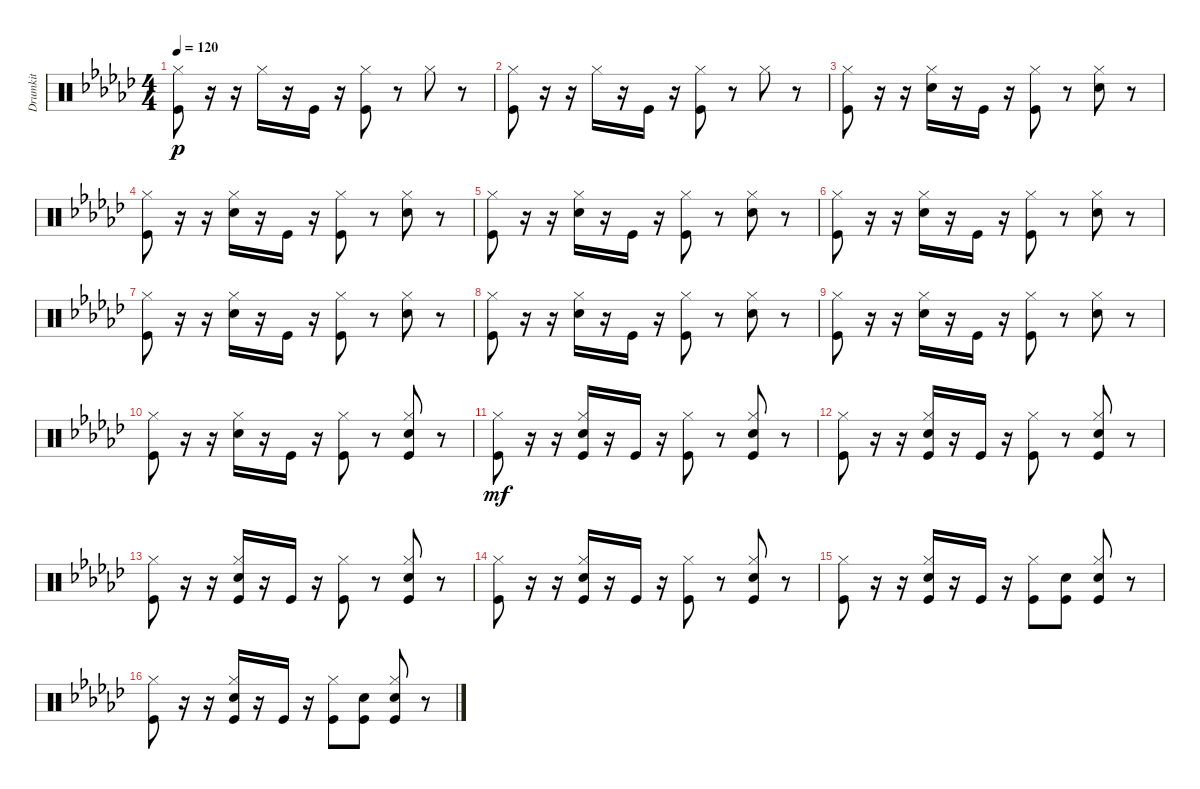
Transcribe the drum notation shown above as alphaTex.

\track ("Drumkit" "Drumkit") {instrument percussion}
\staff {score}
\articulation defaults
\ts (4 4)
\tempo 120
\clef neutral
\ks ebminor
("Kick (hit)" "Hi-Hat (closed)").8{dy p} r.16 r.16 "Hi-Hat (closed)".16 r.16 "Kick (hit)".16 r.16 ("Kick (hit)" "Hi-Hat (closed)").8 r.8 "Hi-Hat (closed)".8 r.8 |
("Kick (hit)" "Hi-Hat (closed)").8 r.16 r.16 "Hi-Hat (closed)".16 r.16 "Kick (hit)".16 r.16 ("Kick (hit)" "Hi-Hat (closed)").8 r.8 "Hi-Hat (closed)".8 r.8 |
("Kick (hit)" "Hi-Hat (closed)").8 r.16 r.16 ("Hi-Hat (closed)" "Snare (hit) 2").16 r.16 "Kick (hit)".16 r.16 ("Kick (hit)" "Hi-Hat (closed)").8 r.8 ("Hi-Hat (closed)" "Snare (hit) 2").8 r.8 |
("Kick (hit)" "Hi-Hat (closed)").8 r.16 r.16 ("Hi-Hat (closed)" "Snare (hit) 2").16 r.16 "Kick (hit)".16 r.16 ("Kick (hit)" "Hi-Hat (closed)").8 r.8 ("Hi-Hat (closed)" "Snare (hit) 2").8 r.8 |
("Kick (hit)" "Hi-Hat (closed)").8 r.16 r.16 ("Hi-Hat (closed)" "Snare (hit) 2").16 r.16 "Kick (hit)".16 r.16 ("Kick (hit)" "Hi-Hat (closed)").8 r.8 ("Hi-Hat (closed)" "Snare (hit) 2").8 r.8 |
("Kick (hit)" "Hi-Hat (closed)").8 r.16 r.16 ("Hi-Hat (closed)" "Snare (hit) 2").16 r.16 "Kick (hit)".16 r.16 ("Kick (hit)" "Hi-Hat (closed)").8 r.8 ("Snare (hit) 2" "Hi-Hat (closed)").8 r.8 |
("Kick (hit)" "Hi-Hat (closed)").8 r.16 r.16 ("Hi-Hat (closed)" "Snare (hit) 2").16 r.16 "Kick (hit)".16 r.16 ("Kick (hit)" "Hi-Hat (closed)").8 r.8 ("Hi-Hat (closed)" "Snare (hit) 2").8 r.8 |
("Kick (hit)" "Hi-Hat (closed)").8 r.16 r.16 ("Hi-Hat (closed)" "Snare (hit) 2").16 r.16 "Kick (hit)".16 r.16 ("Kick (hit)" "Hi-Hat (closed)").8 r.8 ("Hi-Hat (closed)" "Snare (hit) 2").8 r.8 |
("Kick (hit)" "Hi-Hat (closed)").8 r.16 r.16 ("Hi-Hat (closed)" "Snare (hit) 2").16 r.16 "Kick (hit)".16 r.16 ("Kick (hit)" "Hi-Hat (closed)").8 r.8 ("Hi-Hat (closed)" "Snare (hit) 2").8 r.8 |
("Kick (hit)" "Hi-Hat (closed)").8 r.16 r.16 ("Hi-Hat (closed)" "Snare (hit) 2").16 r.16 "Kick (hit)".16 r.16 ("Kick (hit)" "Hi-Hat (closed)").8 r.8 ("Snare (hit) 2" "Hi-Hat (closed)" "Kick (hit)").8 r.8 |
("Kick (hit)" "Hi-Hat (closed)").8{dy mf} r.16 r.16 ("Hi-Hat (closed)" "Snare (hit) 2" "Kick (hit)").16 r.16 "Kick (hit)".16 r.16 ("Kick (hit)" "Hi-Hat (closed)").8 r.8 ("Hi-Hat (closed)" "Snare (hit) 2" "Kick (hit)").8 r.8 |
("Kick (hit)" "Hi-Hat (closed)").8 r.16 r.16 ("Hi-Hat (closed)" "Snare (hit) 2" "Kick (hit)").16 r.16 "Kick (hit)".16 r.16 ("Kick (hit)" "Hi-Hat (closed)").8 r.8 ("Hi-Hat (closed)" "Snare (hit) 2" "Kick (hit)").8 r.8 |
("Kick (hit)" "Hi-Hat (closed)").8 r.16 r.16 ("Hi-Hat (closed)" "Snare (hit) 2" "Kick (hit)").16 r.16 "Kick (hit)".16 r.16 ("Kick (hit)" "Hi-Hat (closed)").8 r.8 ("Hi-Hat (closed)" "Snare (hit) 2" "Kick (hit)").8 r.8 |
("Kick (hit)" "Hi-Hat (closed)").8 r.16 r.16 ("Hi-Hat (closed)" "Snare (hit) 2" "Kick (hit)").16 r.16 "Kick (hit)".16 r.16 ("Kick (hit)" "Hi-Hat (closed)").8 r.8 ("Snare (hit) 2" "Hi-Hat (closed)" "Kick (hit)").8 r.8 |
("Kick (hit)" "Hi-Hat (closed)").8 r.16 r.16 ("Hi-Hat (closed)" "Snare (hit) 2" "Kick (hit)").16 r.16 "Kick (hit)".16 r.16 ("Kick (hit)" "Hi-Hat (closed)").8 ("Kick (hit)" "Snare (hit) 2").8 ("Hi-Hat (closed)" "Snare (hit) 2" "Kick (hit)").8 r.8 |
("Kick (hit)" "Hi-Hat (closed)").8 r.16 r.16 ("Hi-Hat (closed)" "Snare (hit) 2" "Kick (hit)").16 r.16 "Kick (hit)".16 r.16 ("Kick (hit)" "Hi-Hat (closed)").8 ("Kick (hit)" "Snare (hit) 2").8 ("Hi-Hat (closed)" "Snare (hit) 2" "Kick (hit)").8 r.8
